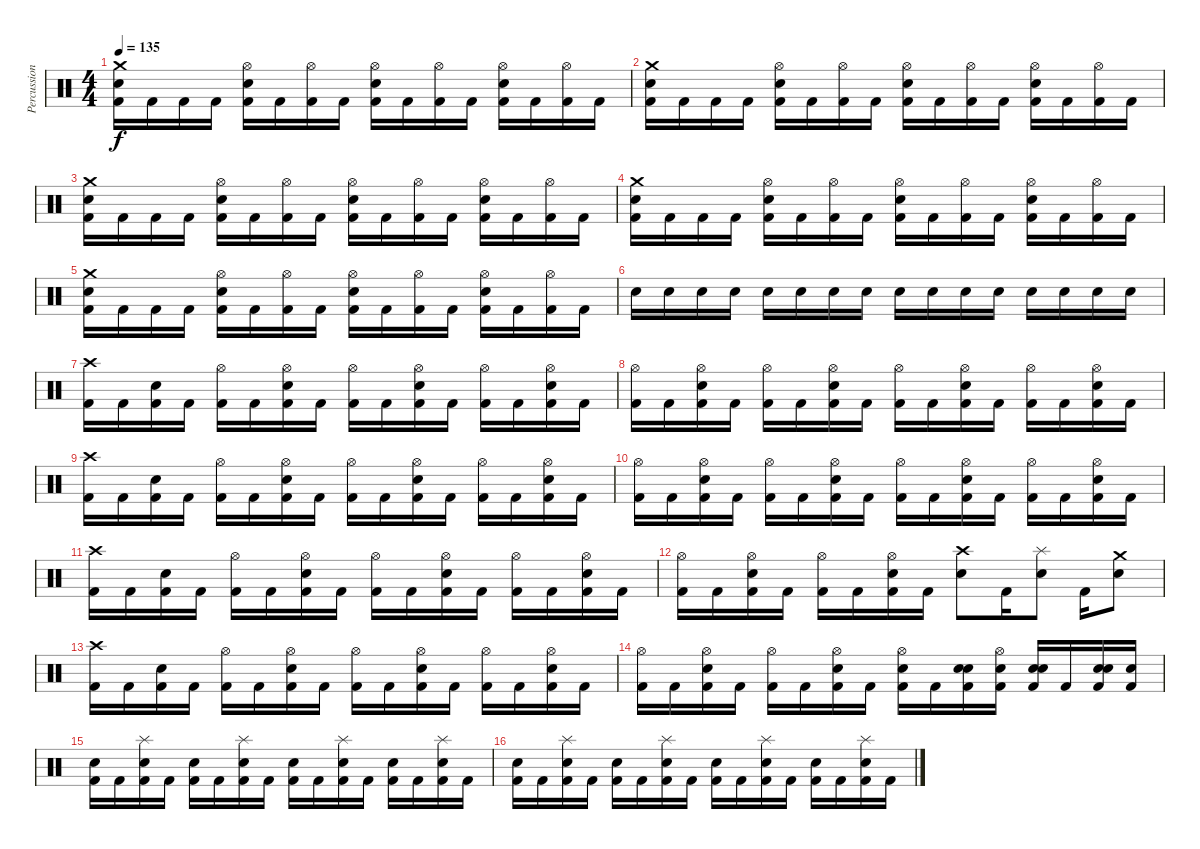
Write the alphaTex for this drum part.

\track ("Percussion" "Percussion") {instrument percussion}
\staff {score}
\articulation defaults
\ts (4 4)
\tempo 135
\clef neutral
\ks c
("Crash medium (hit)" "Snare (hit) 2" "Kick (hit) 2").16{dy f} "Kick (hit) 2".16 "Kick (hit) 2".16 "Kick (hit) 2".16 ("Hi-Hat (open)" "Snare (hit) 2" "Kick (hit) 2").16 "Kick (hit) 2".16 ("Hi-Hat (open)" "Kick (hit) 2").16 "Kick (hit) 2".16 ("Hi-Hat (open)" "Snare (hit) 2" "Kick (hit) 2").16 "Kick (hit) 2".16 ("Hi-Hat (open)" "Kick (hit) 2").16 "Kick (hit) 2".16 ("Hi-Hat (open)" "Snare (hit) 2" "Kick (hit) 2").16 "Kick (hit) 2".16 ("Hi-Hat (open)" "Kick (hit) 2").16 "Kick (hit) 2".16 |
("Crash medium (hit)" "Snare (hit) 2" "Kick (hit) 2").16 "Kick (hit) 2".16 "Kick (hit) 2".16 "Kick (hit) 2".16 ("Hi-Hat (open)" "Snare (hit) 2" "Kick (hit) 2").16 "Kick (hit) 2".16 ("Hi-Hat (open)" "Kick (hit) 2").16 "Kick (hit) 2".16 ("Hi-Hat (open)" "Snare (hit) 2" "Kick (hit) 2").16 "Kick (hit) 2".16 ("Hi-Hat (open)" "Kick (hit) 2").16 "Kick (hit) 2".16 ("Hi-Hat (open)" "Snare (hit) 2" "Kick (hit) 2").16 "Kick (hit) 2".16 ("Hi-Hat (open)" "Kick (hit) 2").16 "Kick (hit) 2".16 |
("Crash medium (hit)" "Snare (hit) 2" "Kick (hit) 2").16 "Kick (hit) 2".16 "Kick (hit) 2".16 "Kick (hit) 2".16 ("Hi-Hat (open)" "Snare (hit) 2" "Kick (hit) 2").16 "Kick (hit) 2".16 ("Hi-Hat (open)" "Kick (hit) 2").16 "Kick (hit) 2".16 ("Hi-Hat (open)" "Snare (hit) 2" "Kick (hit) 2").16 "Kick (hit) 2".16 ("Hi-Hat (open)" "Kick (hit) 2").16 "Kick (hit) 2".16 ("Hi-Hat (open)" "Snare (hit) 2" "Kick (hit) 2").16 "Kick (hit) 2".16 ("Hi-Hat (open)" "Kick (hit) 2").16 "Kick (hit) 2".16 |
("Crash medium (hit)" "Snare (hit) 2" "Kick (hit) 2").16 "Kick (hit) 2".16 "Kick (hit) 2".16 "Kick (hit) 2".16 ("Hi-Hat (open)" "Snare (hit) 2" "Kick (hit) 2").16 "Kick (hit) 2".16 ("Hi-Hat (open)" "Kick (hit) 2").16 "Kick (hit) 2".16 ("Hi-Hat (open)" "Snare (hit) 2" "Kick (hit) 2").16 "Kick (hit) 2".16 ("Hi-Hat (open)" "Kick (hit) 2").16 "Kick (hit) 2".16 ("Hi-Hat (open)" "Snare (hit) 2" "Kick (hit) 2").16 "Kick (hit) 2".16 ("Hi-Hat (open)" "Kick (hit) 2").16 "Kick (hit) 2".16 |
("Crash medium (hit)" "Snare (hit) 2" "Kick (hit) 2").16 "Kick (hit) 2".16 "Kick (hit) 2".16 "Kick (hit) 2".16 ("Hi-Hat (open)" "Snare (hit) 2" "Kick (hit) 2").16 "Kick (hit) 2".16 ("Hi-Hat (open)" "Kick (hit) 2").16 "Kick (hit) 2".16 ("Hi-Hat (open)" "Snare (hit) 2" "Kick (hit) 2").16 "Kick (hit) 2".16 ("Hi-Hat (open)" "Kick (hit) 2").16 "Kick (hit) 2".16 ("Hi-Hat (open)" "Snare (hit) 2" "Kick (hit) 2").16 "Kick (hit) 2".16 ("Hi-Hat (open)" "Kick (hit) 2").16 "Kick (hit) 2".16 |
"Snare (hit) 2".16 "Snare (hit) 2".16 "Snare (hit) 2".16 "Snare (hit) 2".16 "Snare (hit) 2".16 "Snare (hit) 2".16 "Snare (hit) 2".16 "Snare (hit) 2".16 "Snare (hit) 2".16 "Snare (hit) 2".16 "Snare (hit) 2".16 "Snare (hit) 2".16 "Snare (hit) 2".16 "Snare (hit) 2".16 "Snare (hit) 2".16 "Snare (hit) 2".16 |
("Crash high (hit)" "Kick (hit) 2").16 "Kick (hit) 2".16 ("Snare (hit) 2" "Kick (hit) 2").16 "Kick (hit) 2".16 ("Hi-Hat (open)" "Kick (hit) 2").16 "Kick (hit) 2".16 ("Hi-Hat (open)" "Snare (hit) 2" "Kick (hit) 2").16 "Kick (hit) 2".16 ("Hi-Hat (open)" "Kick (hit) 2").16 "Kick (hit) 2".16 ("Hi-Hat (open)" "Snare (hit) 2" "Kick (hit) 2").16 "Kick (hit) 2".16 ("Hi-Hat (open)" "Kick (hit) 2").16 "Kick (hit) 2".16 ("Hi-Hat (open)" "Snare (hit) 2" "Kick (hit) 2").16 "Kick (hit) 2".16 |
("Hi-Hat (open)" "Kick (hit) 2").16 "Kick (hit) 2".16 ("Hi-Hat (open)" "Snare (hit) 2" "Kick (hit) 2").16 "Kick (hit) 2".16 ("Hi-Hat (open)" "Kick (hit) 2").16 "Kick (hit) 2".16 ("Hi-Hat (open)" "Snare (hit) 2" "Kick (hit) 2").16 "Kick (hit) 2".16 ("Hi-Hat (open)" "Kick (hit) 2").16 "Kick (hit) 2".16 ("Hi-Hat (open)" "Snare (hit) 2" "Kick (hit) 2").16 "Kick (hit) 2".16 ("Hi-Hat (open)" "Kick (hit) 2").16 "Kick (hit) 2".16 ("Hi-Hat (open)" "Snare (hit) 2" "Kick (hit) 2").16 "Kick (hit) 2".16 |
("Crash high (hit)" "Kick (hit) 2").16 "Kick (hit) 2".16 ("Snare (hit) 2" "Kick (hit) 2").16 "Kick (hit) 2".16 ("Hi-Hat (open)" "Kick (hit) 2").16 "Kick (hit) 2".16 ("Hi-Hat (open)" "Snare (hit) 2" "Kick (hit) 2").16 "Kick (hit) 2".16 ("Hi-Hat (open)" "Kick (hit) 2").16 "Kick (hit) 2".16 ("Hi-Hat (open)" "Snare (hit) 2" "Kick (hit) 2").16 "Kick (hit) 2".16 ("Hi-Hat (open)" "Kick (hit) 2").16 "Kick (hit) 2".16 ("Hi-Hat (open)" "Snare (hit) 2" "Kick (hit) 2").16 "Kick (hit) 2".16 |
("Hi-Hat (open)" "Kick (hit) 2").16 "Kick (hit) 2".16 ("Hi-Hat (open)" "Snare (hit) 2" "Kick (hit) 2").16 "Kick (hit) 2".16 ("Hi-Hat (open)" "Kick (hit) 2").16 "Kick (hit) 2".16 ("Hi-Hat (open)" "Snare (hit) 2" "Kick (hit) 2").16 "Kick (hit) 2".16 ("Hi-Hat (open)" "Kick (hit) 2").16 "Kick (hit) 2".16 ("Hi-Hat (open)" "Snare (hit) 2" "Kick (hit) 2").16 "Kick (hit) 2".16 ("Hi-Hat (open)" "Kick (hit) 2").16 "Kick (hit) 2".16 ("Hi-Hat (open)" "Snare (hit) 2" "Kick (hit) 2").16 "Kick (hit) 2".16 |
("Crash high (hit)" "Kick (hit) 2").16 "Kick (hit) 2".16 ("Snare (hit) 2" "Kick (hit) 2").16 "Kick (hit) 2".16 ("Hi-Hat (open)" "Kick (hit) 2").16 "Kick (hit) 2".16 ("Hi-Hat (open)" "Snare (hit) 2" "Kick (hit) 2").16 "Kick (hit) 2".16 ("Hi-Hat (open)" "Kick (hit) 2").16 "Kick (hit) 2".16 ("Hi-Hat (open)" "Snare (hit) 2" "Kick (hit) 2").16 "Kick (hit) 2".16 ("Hi-Hat (open)" "Kick (hit) 2").16 "Kick (hit) 2".16 ("Hi-Hat (open)" "Snare (hit) 2" "Kick (hit) 2").16 "Kick (hit) 2".16 |
("Hi-Hat (open)" "Kick (hit) 2").16 "Kick (hit) 2".16 ("Hi-Hat (open)" "Snare (hit) 2" "Kick (hit) 2").16 "Kick (hit) 2".16 ("Hi-Hat (open)" "Kick (hit) 2").16 "Kick (hit) 2".16 ("Hi-Hat (open)" "Snare (hit) 2" "Kick (hit) 2").16 "Kick (hit) 2".16 ("Crash high (hit)" "Snare (hit) 2").8 "Kick (hit) 2".16 ("Splash (hit)" "Snare (hit) 2").8 "Kick (hit) 2".16 ("Crash medium (hit)" "Snare (hit) 2").8 |
("Crash high (hit)" "Kick (hit) 2").16 "Kick (hit) 2".16 ("Snare (hit) 2" "Kick (hit) 2").16 "Kick (hit) 2".16 ("Hi-Hat (open)" "Kick (hit) 2").16 "Kick (hit) 2".16 ("Hi-Hat (open)" "Snare (hit) 2" "Kick (hit) 2").16 "Kick (hit) 2".16 ("Hi-Hat (open)" "Kick (hit) 2").16 "Kick (hit) 2".16 ("Hi-Hat (open)" "Snare (hit) 2" "Kick (hit) 2").16 "Kick (hit) 2".16 ("Hi-Hat (open)" "Kick (hit) 2").16 "Kick (hit) 2".16 ("Hi-Hat (open)" "Snare (hit) 2" "Kick (hit) 2").16 "Kick (hit) 2".16 |
("Hi-Hat (open)" "Kick (hit) 2").16 "Kick (hit) 2".16 ("Hi-Hat (open)" "Snare (hit) 2" "Kick (hit) 2").16 "Kick (hit) 2".16 ("Hi-Hat (open)" "Kick (hit) 2").16 "Kick (hit) 2".16 ("Hi-Hat (open)" "Snare (hit) 2" "Kick (hit) 2").16 "Kick (hit) 2".16 ("Hi-Hat (open)" "Snare (hit) 2" "Kick (hit) 2").16 "Kick (hit) 2".16 ("Snare (hit)" "Snare (hit)" "Kick (hit) 2").16 ("Hi-Hat (open)" "Snare (hit) 2" "Kick (hit) 2").16 ("Snare (hit)" "Snare (hit)" "Kick (hit) 2").16 "Kick (hit) 2".16 ("Snare (hit)" "Snare (hit) 2" "Kick (hit) 2").16 ("Snare (hit) 2" "Kick (hit) 2").16 |
("Snare (hit)" "Kick (hit) 2").16 "Kick (hit) 2".16 ("Splash (hit)" "Snare (hit) 2" "Kick (hit) 2").16 "Kick (hit) 2".16 ("Snare (hit)" "Kick (hit) 2").16 "Kick (hit) 2".16 ("Splash (hit)" "Snare (hit) 2" "Kick (hit) 2").16 "Kick (hit) 2".16 ("Snare (hit)" "Kick (hit) 2").16 "Kick (hit) 2".16 ("Splash (hit)" "Snare (hit) 2" "Kick (hit) 2").16 "Kick (hit) 2".16 ("Snare (hit)" "Kick (hit) 2").16 "Kick (hit) 2".16 ("Splash (hit)" "Snare (hit) 2" "Kick (hit) 2").16 "Kick (hit) 2".16 |
("Snare (hit)" "Kick (hit) 2").16 "Kick (hit) 2".16 ("Splash (hit)" "Snare (hit) 2" "Kick (hit) 2").16 "Kick (hit) 2".16 ("Snare (hit)" "Kick (hit) 2").16 "Kick (hit) 2".16 ("Splash (hit)" "Snare (hit) 2" "Kick (hit) 2").16 "Kick (hit) 2".16 ("Snare (hit)" "Kick (hit) 2").16 "Kick (hit) 2".16 ("Splash (hit)" "Snare (hit) 2" "Kick (hit) 2").16 "Kick (hit) 2".16 ("Snare (hit)" "Kick (hit) 2").16 "Kick (hit) 2".16 ("Splash (hit)" "Snare (hit) 2" "Kick (hit) 2").16 "Kick (hit) 2".16
